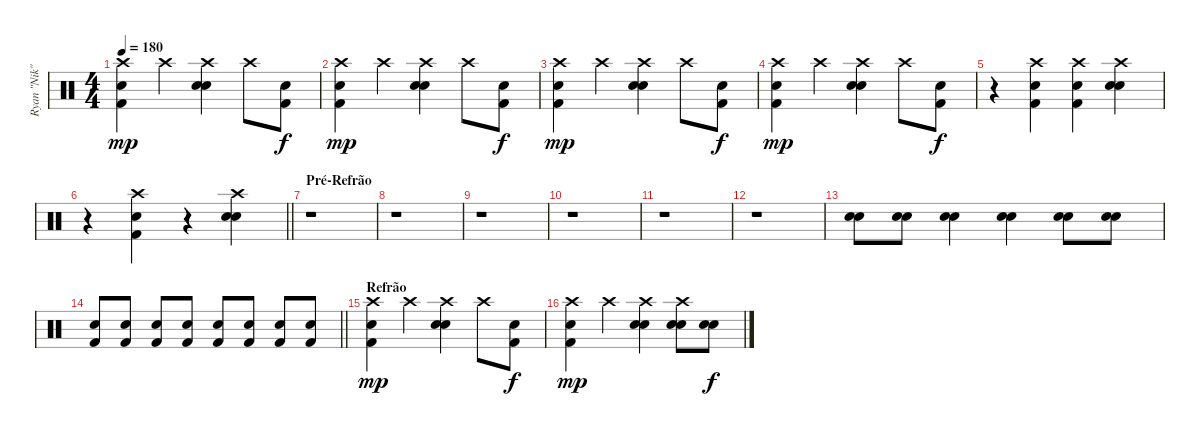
\track ("Ryan \"Nik\"" "Ryan \"Nik\"") {instrument percussion}
\staff {score}
\articulation defaults
\ts (4 4)
\tempo 180
\clef neutral
\ks c
("Crash high (hit)" "Electric Snare (hit)" "Kick (hit) 2").4{dy mp} "Crash high (hit)".4 ("Crash high (hit)" "Electric Snare (hit)" "Electric Snare (hit)").4 "Crash high (hit)".8 ("Kick (hit) 2" "Electric Snare (hit)").8{dy f} |
("Crash high (hit)" "Electric Snare (hit)" "Kick (hit) 2").4{dy mp} "Crash high (hit)".4 ("Crash high (hit)" "Electric Snare (hit)" "Electric Snare (hit)").4 "Crash high (hit)".8 ("Kick (hit) 2" "Electric Snare (hit)").8{dy f} |
("Crash high (hit)" "Electric Snare (hit)" "Kick (hit) 2").4{dy mp} "Crash high (hit)".4 ("Crash high (hit)" "Electric Snare (hit)" "Electric Snare (hit)").4 "Crash high (hit)".8 ("Kick (hit) 2" "Electric Snare (hit)").8{dy f} |
("Crash high (hit)" "Electric Snare (hit)" "Kick (hit) 2").4{dy mp} "Crash high (hit)".4 ("Crash high (hit)" "Electric Snare (hit)" "Electric Snare (hit)").4 "Crash high (hit)".8 ("Kick (hit) 2" "Electric Snare (hit)").8{dy f} |
r.4 ("Crash high (hit)" "Electric Snare (hit)" "Kick (hit) 2").4 ("Crash high (hit)" "Electric Snare (hit)" "Kick (hit) 2").4 ("Crash high (hit)" "Electric Snare (hit)" "Electric Snare (hit)").4 |
\barLineRight lightlight
r.4 ("Crash high (hit)" "Electric Snare (hit)" "Kick (hit) 2").4 r.4 ("Crash high (hit)" "Electric Snare (hit)" "Electric Snare (hit)").4 |
\section ("" "Pré-Refrão")
r.1 |
r.1 |
r.1 |
r.1 |
r.1 |
r.1 |
("Snare (hit) 2" "Electric Snare (hit)").8 ("Snare (hit) 2" "Electric Snare (hit)").8 ("Electric Snare (hit)" "Electric Snare (hit)").4 ("Electric Snare (hit)" "Snare (hit) 2").4 ("Electric Snare (hit)" "Electric Snare (hit)").8 ("Electric Snare (hit)" "Electric Snare (hit)").8 |
\barLineRight lightlight
("Kick (hit) 2" "Electric Snare (hit)").8 ("Kick (hit) 2" "Electric Snare (hit)").8 ("Kick (hit) 2" "Electric Snare (hit)").8 ("Kick (hit) 2" "Electric Snare (hit)").8 ("Kick (hit) 2" "Electric Snare (hit)").8 ("Kick (hit) 2" "Electric Snare (hit)").8 ("Kick (hit) 2" "Electric Snare (hit)").8 ("Kick (hit) 2" "Electric Snare (hit)").8 |
\section ("" "Refrão")
("Crash high (hit)" "Electric Snare (hit)" "Kick (hit) 2").4{dy mp} "Crash high (hit)".4 ("Crash high (hit)" "Electric Snare (hit)" "Electric Snare (hit)").4 "Crash high (hit)".8 ("Kick (hit) 2" "Electric Snare (hit)").8{dy f} |
("Crash high (hit)" "Electric Snare (hit)" "Kick (hit) 2").4{dy mp} "Crash high (hit)".4 ("Crash high (hit)" "Electric Snare (hit)" "Electric Snare (hit)").4 ("Crash high (hit)" "Electric Snare (hit)" "Electric Snare (hit)").8 ("Electric Snare (hit)" "Electric Snare (hit)").8{dy f}
